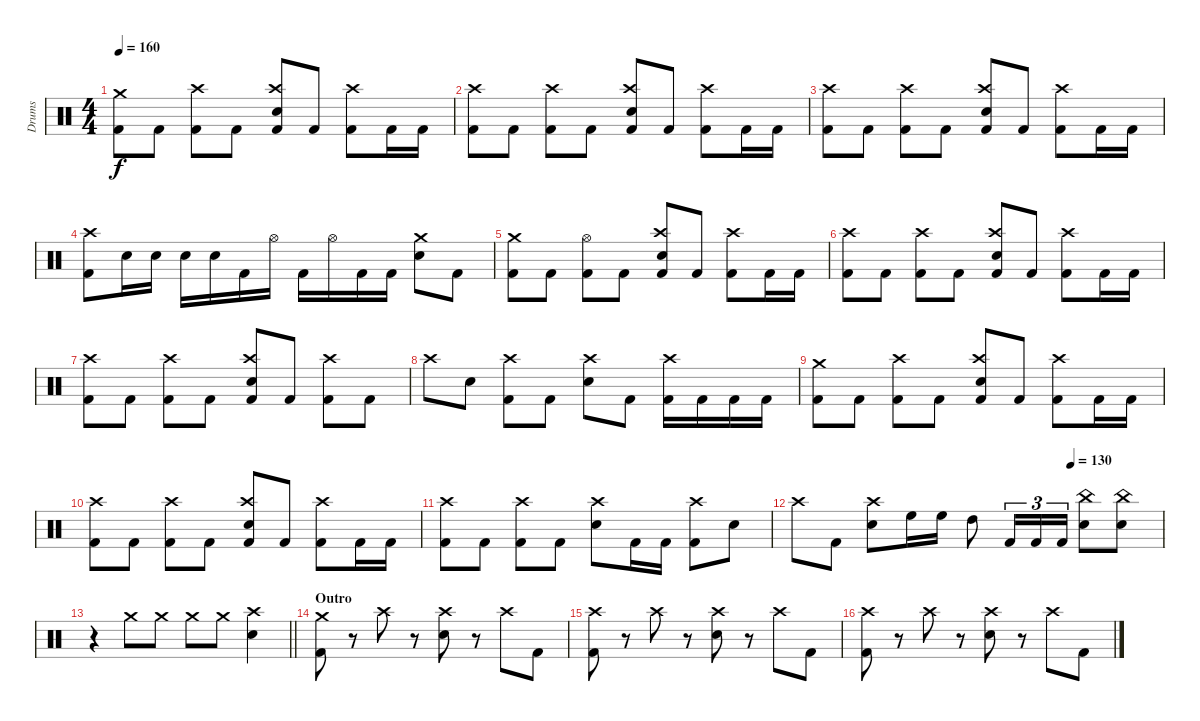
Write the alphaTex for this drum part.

\track ("Drums" "Drums") {instrument percussion}
\staff
\articulation defaults
\ts (4 4)
\tempo 160
\clef neutral
\ks c
("Crash medium (hit)" "Kick (hit) 2").8{dy f} "Kick (hit) 2".8 ("Crash high (hit)" "Kick (hit) 2").8 "Kick (hit) 2".8 ("Crash high (hit)" "Electric Snare (hit)" "Kick (hit) 2").8 "Kick (hit) 2".8 ("Crash high (hit)" "Kick (hit) 2").8 "Kick (hit) 2".16 "Kick (hit) 2".16 |
("Crash high (hit)" "Kick (hit) 2").8 "Kick (hit) 2".8 ("Crash high (hit)" "Kick (hit) 2").8 "Kick (hit) 2".8 ("Crash high (hit)" "Electric Snare (hit)" "Kick (hit) 2").8 "Kick (hit) 2".8 ("Crash high (hit)" "Kick (hit) 2").8 "Kick (hit) 2".16 "Kick (hit) 2".16 |
("Crash high (hit)" "Kick (hit) 2").8 "Kick (hit) 2".8 ("Crash high (hit)" "Kick (hit) 2").8 "Kick (hit) 2".8 ("Crash high (hit)" "Electric Snare (hit)" "Kick (hit) 2").8 "Kick (hit) 2".8 ("Crash high (hit)" "Kick (hit) 2").8 "Kick (hit) 2".16 "Kick (hit) 2".16 |
("Crash high (hit)" "Kick (hit) 2").8 "Electric Snare (hit)".16 "Electric Snare (hit)".16 "Electric Snare (hit)".16 "Electric Snare (hit)".16 "Kick (hit) 2".16 "Hi-Hat (open)".16 "Kick (hit) 2".16 "Hi-Hat (open)".16 "Kick (hit) 2".16 "Kick (hit) 2".16 ("Crash medium (hit)" "Electric Snare (hit)").8 "Kick (hit) 2".8 |
("Crash medium (hit)" "Kick (hit) 2").8 "Kick (hit) 2".8 ("Hi-Hat (open)" "Kick (hit) 2").8 "Kick (hit) 2".8 ("Crash high (hit)" "Electric Snare (hit)" "Kick (hit) 2").8 "Kick (hit) 2".8 ("Crash high (hit)" "Kick (hit) 2").8 "Kick (hit) 2".16 "Kick (hit) 2".16 |
("Crash high (hit)" "Kick (hit) 2").8 "Kick (hit) 2".8 ("Crash high (hit)" "Kick (hit) 2").8 "Kick (hit) 2".8 ("Crash high (hit)" "Electric Snare (hit)" "Kick (hit) 2").8 "Kick (hit) 2".8 ("Crash high (hit)" "Kick (hit) 2").8 "Kick (hit) 2".16 "Kick (hit) 2".16 |
("Crash high (hit)" "Kick (hit) 2").8 "Kick (hit) 2".8 ("Crash high (hit)" "Kick (hit) 2").8 "Kick (hit) 2".8 ("Crash high (hit)" "Electric Snare (hit)" "Kick (hit) 2").8 "Kick (hit) 2".8 ("Crash high (hit)" "Kick (hit) 2").8 "Kick (hit) 2".8 |
"Crash high (hit)".8 "Electric Snare (hit)".8 ("Crash high (hit)" "Kick (hit) 2").8 "Kick (hit) 2".8 ("Crash high (hit)" "Electric Snare (hit)").8 "Kick (hit) 2".8 ("Crash high (hit)" "Kick (hit) 2").16 "Kick (hit) 2".16 "Kick (hit) 2".16 "Kick (hit) 2".16 |
("Crash medium (hit)" "Kick (hit) 2").8 "Kick (hit) 2".8 ("Crash high (hit)" "Kick (hit) 2").8 "Kick (hit) 2".8 ("Crash high (hit)" "Electric Snare (hit)" "Kick (hit) 2").8 "Kick (hit) 2".8 ("Crash high (hit)" "Kick (hit) 2").8 "Kick (hit) 2".16 "Kick (hit) 2".16 |
("Crash high (hit)" "Kick (hit) 2").8 "Kick (hit) 2".8 ("Crash high (hit)" "Kick (hit) 2").8 "Kick (hit) 2".8 ("Crash high (hit)" "Electric Snare (hit)" "Kick (hit) 2").8 "Kick (hit) 2".8 ("Crash high (hit)" "Kick (hit) 2").8 "Kick (hit) 2".16 "Kick (hit) 2".16 |
("Crash high (hit)" "Kick (hit) 2").8 "Kick (hit) 2".8 ("Crash high (hit)" "Kick (hit) 2").8 "Kick (hit) 2".8 ("Crash high (hit)" "Electric Snare (hit)").8 "Kick (hit) 2".16 "Kick (hit) 2".16 ("Crash high (hit)" "Kick (hit) 2").8 "Electric Snare (hit)".8 |
\tempo (130 0.75)
"Crash high (hit)".8 "Kick (hit) 2".8 ("Crash high (hit)" "Electric Snare (hit)").8 "High Floor Tom (hit)".16 "High Floor Tom (hit)".16 "High Tom (hit)".8 "Kick (hit) 2".16{tu (3 2)} "Kick (hit) 2".16{tu (3 2)} "Kick (hit) 2".16{tu (3 2)} ("China (hit)" "Electric Snare (hit)").8 ("China (hit)" "Electric Snare (hit)").8 |
\barLineRight lightlight
r.4 "Crash medium (hit)".8 "Crash medium (hit)".8 "Crash medium (hit)".8 "Crash medium (hit)".8 ("Crash high (hit)" "Electric Snare (hit)").4 |
\section ("" "Outro")
("Crash medium (hit)" "Kick (hit) 2").8 r.8 "Crash high (hit)".8 r.8 ("Crash high (hit)" "Electric Snare (hit)").8 r.8 "Crash high (hit)".8 "Kick (hit) 2".8 |
("Crash high (hit)" "Kick (hit) 2").8 r.8 "Crash high (hit)".8 r.8 ("Crash high (hit)" "Electric Snare (hit)").8 r.8 "Crash high (hit)".8 "Kick (hit) 2".8 |
("Crash high (hit)" "Kick (hit) 2").8 r.8 "Crash high (hit)".8 r.8 ("Crash high (hit)" "Electric Snare (hit)").8 r.8 "Crash high (hit)".8 "Kick (hit) 2".8
